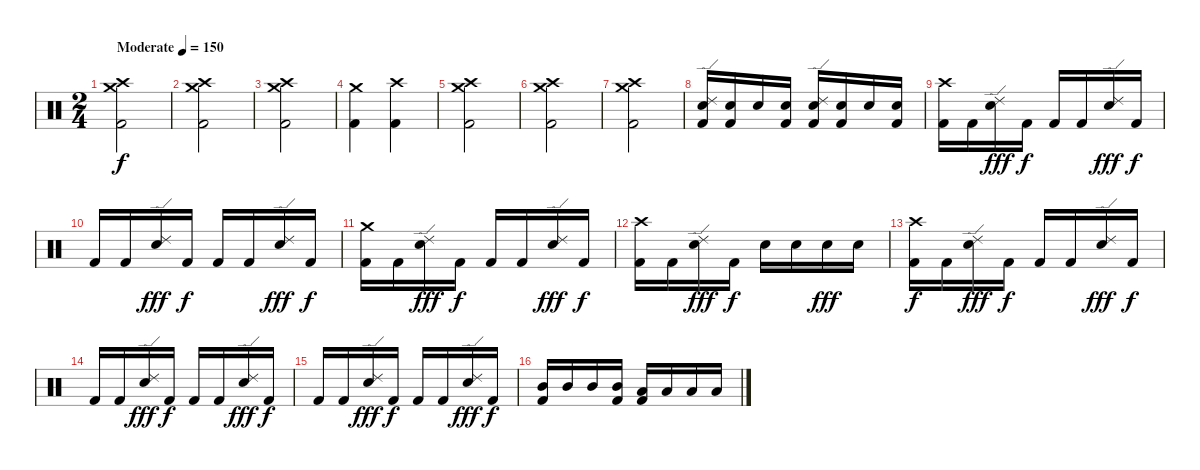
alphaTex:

\track "" {instrument percussion}
\staff {score}
\articulation defaults
\ts (2 4)
\tempo (150 "Moderate")
\clef neutral
\ks c
("Kick (hit) 2" "Crash high (hit)" "Crash medium (hit)").2{dy f} |
("Crash high (hit)" "Kick (hit) 2" "Crash medium (hit)").2 |
("Kick (hit) 2" "Crash high (hit)" "Crash medium (hit)").2 |
("Kick (hit) 2" "Crash medium (hit)").4 ("Kick (hit) 2" "Crash high (hit)").4 |
("Kick (hit) 2" "Crash high (hit)" "Crash medium (hit)").2 |
("Crash high (hit)" "Kick (hit) 2" "Crash medium (hit)").2 |
("Kick (hit) 2" "Crash high (hit)" "Crash medium (hit)").2 |
("Electric Snare (hit)" "Ride (edge) 2" "Kick (hit) 2").16 ("Electric Snare (hit)" "Kick (hit) 2").16 "Electric Snare (hit)".16 ("Electric Snare (hit)" "Kick (hit) 2").16 ("Electric Snare (hit)" "Ride (edge) 2" "Kick (hit) 2").16 ("Electric Snare (hit)" "Kick (hit) 2").16 "Electric Snare (hit)".16 ("Electric Snare (hit)" "Kick (hit) 2").16 |
("Kick (hit) 2" "Crash high (hit)").16 "Kick (hit) 2".16 ("Electric Snare (hit)" "Ride (edge) 2").16{dy fff} "Kick (hit) 2".16{dy f} "Kick (hit) 2".16 "Kick (hit) 2".16 ("Electric Snare (hit)" "Ride (edge) 2").16{dy fff} "Kick (hit) 2".16{dy f} |
"Kick (hit) 2".16 "Kick (hit) 2".16 ("Electric Snare (hit)" "Ride (edge) 2").16{dy fff} "Kick (hit) 2".16{dy f} "Kick (hit) 2".16 "Kick (hit) 2".16 ("Electric Snare (hit)" "Ride (edge) 2").16{dy fff} "Kick (hit) 2".16{dy f} |
("Kick (hit) 2" "Crash medium (hit)").16 "Kick (hit) 2".16 ("Electric Snare (hit)" "Ride (edge) 2").16{dy fff} "Kick (hit) 2".16{dy f} "Kick (hit) 2".16 "Kick (hit) 2".16 ("Electric Snare (hit)" "Ride (edge) 2").16{dy fff} "Kick (hit) 2".16{dy f} |
("Kick (hit) 2" "Crash high (hit)").16 "Kick (hit) 2".16 ("Electric Snare (hit)" "Ride (edge) 2").16{dy fff} "Kick (hit) 2".16{dy f} "Electric Snare (hit)".16 "Electric Snare (hit)".16 "Electric Snare (hit)".16{dy fff} "Electric Snare (hit)".16 |
("Kick (hit) 2" "Crash high (hit)").16{dy f} "Kick (hit) 2".16 ("Electric Snare (hit)" "Ride (edge) 2").16{dy fff} "Kick (hit) 2".16{dy f} "Kick (hit) 2".16 "Kick (hit) 2".16 ("Electric Snare (hit)" "Ride (edge) 2").16{dy fff} "Kick (hit) 2".16{dy f} |
"Kick (hit) 2".16 "Kick (hit) 2".16 ("Electric Snare (hit)" "Ride (edge) 2").16{dy fff} "Kick (hit) 2".16{dy f} "Kick (hit) 2".16 "Kick (hit) 2".16 ("Electric Snare (hit)" "Ride (edge) 2").16{dy fff} "Kick (hit) 2".16{dy f} |
"Kick (hit) 2".16 "Kick (hit) 2".16 ("Electric Snare (hit)" "Ride (edge) 2").16{dy fff} "Kick (hit) 2".16{dy f} "Kick (hit) 2".16 "Kick (hit) 2".16 ("Electric Snare (hit)" "Ride (edge) 2").16{dy fff} "Kick (hit) 2".16{dy f} |
("Mid Tom (hit)" "Kick (hit) 2").16 "Mid Tom (hit)".16 "Mid Tom (hit)".16 ("Mid Tom (hit)" "Kick (hit) 2").16 ("Low Tom (hit)" "Kick (hit) 2").16 "Low Tom (hit)".16 "Low Tom (hit)".16 "Low Tom (hit)".16
